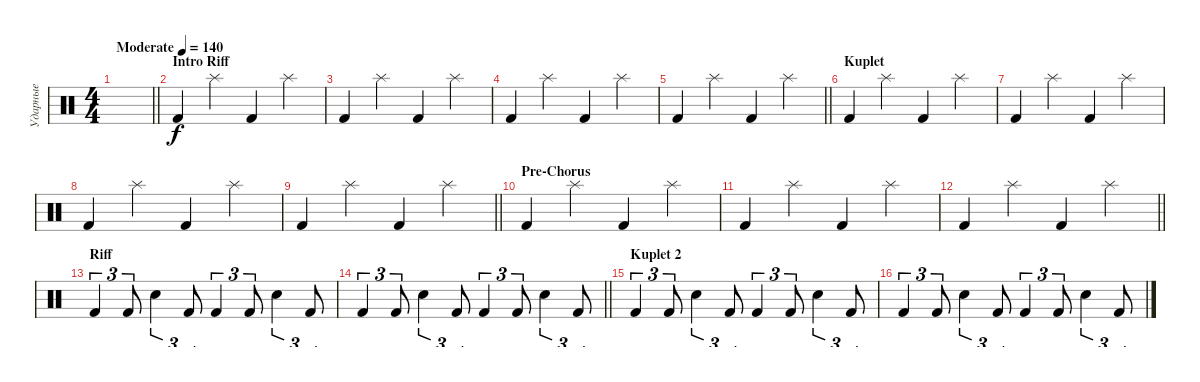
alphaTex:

\track ("Ударные" "Ударные") {instrument percussion}
\staff {score}
\articulation defaults
\ts (4 4)
\tempo (140 "Moderate")
\clef neutral
\barLineRight lightlight
\ks c
|
\section ("" "Intro Riff")
"Kick (hit) 2".4 "Splash (hit)".4 "Kick (hit) 2".4 "Splash (hit)".4 |
"Kick (hit) 2".4 "Splash (hit)".4 "Kick (hit) 2".4 "Splash (hit)".4 |
"Kick (hit) 2".4 "Splash (hit)".4 "Kick (hit) 2".4 "Splash (hit)".4 |
\barLineRight lightlight "Kick (hit) 2".4 "Splash (hit)".4 "Kick (hit) 2".4 "Splash (hit)".4
|
\section ("" "Kuplet")
"Kick (hit) 2".4 "Splash (hit)".4 "Kick (hit) 2".4 "Splash (hit)".4 |
"Kick (hit) 2".4 "Splash (hit)".4 "Kick (hit) 2".4 "Splash (hit)".4 |
"Kick (hit) 2".4 "Splash (hit)".4 "Kick (hit) 2".4 "Splash (hit)".4 |
\barLineRight lightlight "Kick (hit) 2".4 "Splash (hit)".4 "Kick (hit) 2".4 "Splash (hit)".4
|
\section ("" "Pre-Chorus")
"Kick (hit) 2".4 "Splash (hit)".4 "Kick (hit) 2".4 "Splash (hit)".4 |
"Kick (hit) 2".4 "Splash (hit)".4 "Kick (hit) 2".4 "Splash (hit)".4 |
\barLineRight lightlight "Kick (hit) 2".4 "Splash (hit)".4 "Kick (hit) 2".4 "Splash (hit)".4
|
\section ("" "Riff")
"Kick (hit) 2".4{tu (3 2)} "Kick (hit) 2".8{tu (3 2)} "Snare (hit) 2".4{tu (3 2)} "Kick (hit) 2".8{tu (3 2)} "Kick (hit) 2".4{tu (3 2)} "Kick (hit) 2".8{tu (3 2)} "Snare (hit) 2".4{tu (3 2)} "Kick (hit) 2".8{tu (3 2)} |
\barLineRight lightlight "Kick (hit) 2".4{tu (3 2)} "Kick (hit) 2".8{tu (3 2)} "Snare (hit) 2".4{tu (3 2)} "Kick (hit) 2".8{tu (3 2)} "Kick (hit) 2".4{tu (3 2)} "Kick (hit) 2".8{tu (3 2)} "Snare (hit) 2".4{tu (3 2)} "Kick (hit) 2".8{tu (3 2)}
|
\section ("" "Kuplet 2")
"Kick (hit) 2".4{tu (3 2)} "Kick (hit) 2".8{tu (3 2)} "Snare (hit) 2".4{tu (3 2)} "Kick (hit) 2".8{tu (3 2)} "Kick (hit) 2".4{tu (3 2)} "Kick (hit) 2".8{tu (3 2)} "Snare (hit) 2".4{tu (3 2)} "Kick (hit) 2".8{tu (3 2)} |
"Kick (hit) 2".4{tu (3 2)} "Kick (hit) 2".8{tu (3 2)} "Snare (hit) 2".4{tu (3 2)} "Kick (hit) 2".8{tu (3 2)} "Kick (hit) 2".4{tu (3 2)} "Kick (hit) 2".8{tu (3 2)} "Snare (hit) 2".4{tu (3 2)} "Kick (hit) 2".8{tu (3 2)}
